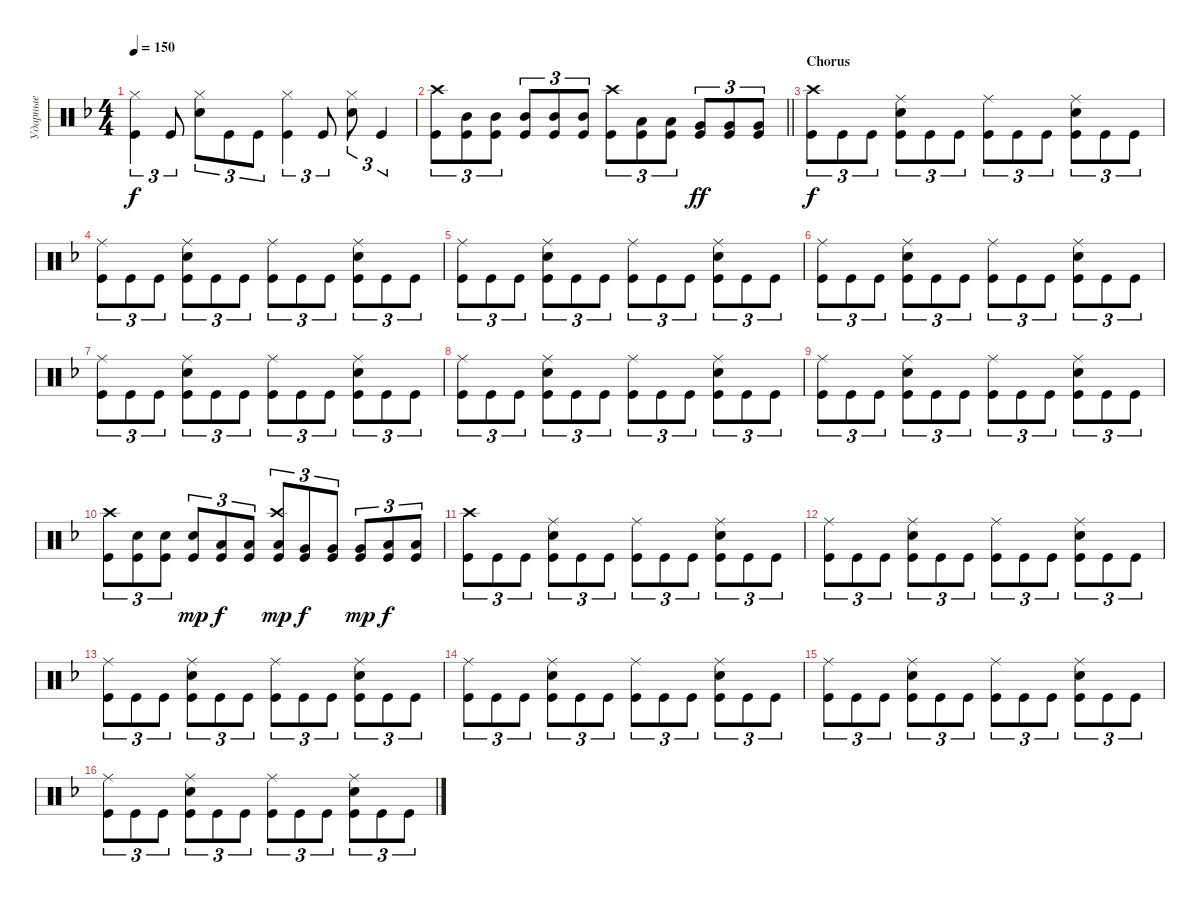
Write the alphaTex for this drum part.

\track ("Ударные" "Ударные") {instrument percussion}
\staff {score}
\articulation defaults
\ts (4 4)
\tempo 150
\clef neutral
\ks dminor
("Kick (hit)" "Hi-Hat (closed)").4{tu (3 2) dy f} "Kick (hit)".8{tu (3 2)} ("Snare (hit) 2" "Hi-Hat (closed)").8{tu (3 2)} "Kick (hit)".8{tu (3 2)} "Kick (hit)".8{tu (3 2)} ("Kick (hit)" "Hi-Hat (closed)").4{tu (3 2)} "Kick (hit)".8{tu (3 2)} ("Snare (hit) 2" "Hi-Hat (closed)").8{tu (3 2)} "Kick (hit)".4{tu (3 2)} |
\barLineRight lightlight
("Kick (hit)" "Crash high (hit)").8{tu (3 2)} ("Mid Tom (hit)" "Kick (hit)").8{tu (3 2)} ("Mid Tom (hit)" "Kick (hit)").8{tu (3 2)} ("Mid Tom (hit)" "Kick (hit)").8{tu (3 2)} ("Mid Tom (hit)" "Kick (hit)").8{tu (3 2)} ("Mid Tom (hit)" "Kick (hit)").8{tu (3 2)} ("Kick (hit)" "Crash high (hit)").8{tu (3 2)} ("Low Tom (hit)" "Kick (hit)").8{tu (3 2)} ("Low Tom (hit)" "Kick (hit)").8{tu (3 2)} ("Very Low Tom (hit)" "Kick (hit)").8{tu (3 2) dy ff} ("Very Low Tom (hit)" "Kick (hit)").8{tu (3 2)} ("Very Low Tom (hit)" "Kick (hit)").8{tu (3 2)} |
\section ("" "Chorus")
("Kick (hit)" "Crash high (hit)").8{tu (3 2) dy f} "Kick (hit)".8{tu (3 2)} "Kick (hit)".8{tu (3 2)} ("Snare (hit) 2" "Kick (hit)" "Ride (middle)").8{tu (3 2)} "Kick (hit)".8{tu (3 2)} "Kick (hit)".8{tu (3 2)} ("Kick (hit)" "Ride (middle)").8{tu (3 2)} "Kick (hit)".8{tu (3 2)} "Kick (hit)".8{tu (3 2)} ("Kick (hit)" "Snare (hit) 2" "Ride (middle)").8{tu (3 2)} "Kick (hit)".8{tu (3 2)} "Kick (hit)".8{tu (3 2)} |
("Kick (hit)" "Ride (middle)").8{tu (3 2)} "Kick (hit)".8{tu (3 2)} "Kick (hit)".8{tu (3 2)} ("Snare (hit) 2" "Kick (hit)" "Ride (middle)").8{tu (3 2)} "Kick (hit)".8{tu (3 2)} "Kick (hit)".8{tu (3 2)} ("Kick (hit)" "Ride (middle)").8{tu (3 2)} "Kick (hit)".8{tu (3 2)} "Kick (hit)".8{tu (3 2)} ("Kick (hit)" "Snare (hit) 2" "Ride (middle)").8{tu (3 2)} "Kick (hit)".8{tu (3 2)} "Kick (hit)".8{tu (3 2)} |
("Kick (hit)" "Ride (middle)").8{tu (3 2)} "Kick (hit)".8{tu (3 2)} "Kick (hit)".8{tu (3 2)} ("Snare (hit) 2" "Kick (hit)" "Ride (middle)").8{tu (3 2)} "Kick (hit)".8{tu (3 2)} "Kick (hit)".8{tu (3 2)} ("Kick (hit)" "Ride (middle)").8{tu (3 2)} "Kick (hit)".8{tu (3 2)} "Kick (hit)".8{tu (3 2)} ("Kick (hit)" "Snare (hit) 2" "Ride (middle)").8{tu (3 2)} "Kick (hit)".8{tu (3 2)} "Kick (hit)".8{tu (3 2)} |
("Kick (hit)" "Ride (middle)").8{tu (3 2)} "Kick (hit)".8{tu (3 2)} "Kick (hit)".8{tu (3 2)} ("Snare (hit) 2" "Kick (hit)" "Ride (middle)").8{tu (3 2)} "Kick (hit)".8{tu (3 2)} "Kick (hit)".8{tu (3 2)} ("Kick (hit)" "Ride (middle)").8{tu (3 2)} "Kick (hit)".8{tu (3 2)} "Kick (hit)".8{tu (3 2)} ("Kick (hit)" "Snare (hit) 2" "Ride (middle)").8{tu (3 2)} "Kick (hit)".8{tu (3 2)} "Kick (hit)".8{tu (3 2)} |
("Kick (hit)" "Ride (middle)").8{tu (3 2)} "Kick (hit)".8{tu (3 2)} "Kick (hit)".8{tu (3 2)} ("Snare (hit) 2" "Kick (hit)" "Ride (middle)").8{tu (3 2)} "Kick (hit)".8{tu (3 2)} "Kick (hit)".8{tu (3 2)} ("Kick (hit)" "Ride (middle)").8{tu (3 2)} "Kick (hit)".8{tu (3 2)} "Kick (hit)".8{tu (3 2)} ("Kick (hit)" "Snare (hit) 2" "Ride (middle)").8{tu (3 2)} "Kick (hit)".8{tu (3 2)} "Kick (hit)".8{tu (3 2)} |
("Kick (hit)" "Ride (middle)").8{tu (3 2)} "Kick (hit)".8{tu (3 2)} "Kick (hit)".8{tu (3 2)} ("Snare (hit) 2" "Kick (hit)" "Ride (middle)").8{tu (3 2)} "Kick (hit)".8{tu (3 2)} "Kick (hit)".8{tu (3 2)} ("Kick (hit)" "Ride (middle)").8{tu (3 2)} "Kick (hit)".8{tu (3 2)} "Kick (hit)".8{tu (3 2)} ("Kick (hit)" "Snare (hit) 2" "Ride (middle)").8{tu (3 2)} "Kick (hit)".8{tu (3 2)} "Kick (hit)".8{tu (3 2)} |
("Kick (hit)" "Ride (middle)").8{tu (3 2)} "Kick (hit)".8{tu (3 2)} "Kick (hit)".8{tu (3 2)} ("Snare (hit) 2" "Kick (hit)" "Ride (middle)").8{tu (3 2)} "Kick (hit)".8{tu (3 2)} "Kick (hit)".8{tu (3 2)} ("Kick (hit)" "Ride (middle)").8{tu (3 2)} "Kick (hit)".8{tu (3 2)} "Kick (hit)".8{tu (3 2)} ("Kick (hit)" "Snare (hit) 2" "Ride (middle)").8{tu (3 2)} "Kick (hit)".8{tu (3 2)} "Kick (hit)".8{tu (3 2)} |
("Kick (hit)" "Crash high (hit)").8{tu (3 2)} ("Snare (hit) 2" "Kick (hit)").8{tu (3 2)} ("Snare (hit) 2" "Kick (hit)").8{tu (3 2)} ("Snare (hit) 2" "Kick (hit)").8{tu (3 2) dy mp} ("Kick (hit)" "Low Tom (hit)").8{tu (3 2) dy f} ("Kick (hit)" "Low Tom (hit)").8{tu (3 2)} ("Kick (hit)" "Crash high (hit)" "Low Tom (hit)").8{tu (3 2) dy mp} ("Very Low Tom (hit)" "Kick (hit)").8{tu (3 2) dy f} ("Very Low Tom (hit)" "Kick (hit)").8{tu (3 2)} ("Very Low Tom (hit)" "Kick (hit)").8{tu (3 2) dy mp} ("Low Floor Tom (hit)" "Kick (hit)").8{tu (3 2) dy f} ("Low Floor Tom (hit)" "Kick (hit)").8{tu (3 2)} |
("Kick (hit)" "Crash high (hit)").8{tu (3 2)} "Kick (hit)".8{tu (3 2)} "Kick (hit)".8{tu (3 2)} ("Snare (hit) 2" "Kick (hit)" "Ride (middle)").8{tu (3 2)} "Kick (hit)".8{tu (3 2)} "Kick (hit)".8{tu (3 2)} ("Kick (hit)" "Ride (middle)").8{tu (3 2)} "Kick (hit)".8{tu (3 2)} "Kick (hit)".8{tu (3 2)} ("Kick (hit)" "Snare (hit) 2" "Ride (middle)").8{tu (3 2)} "Kick (hit)".8{tu (3 2)} "Kick (hit)".8{tu (3 2)} |
("Kick (hit)" "Ride (middle)").8{tu (3 2)} "Kick (hit)".8{tu (3 2)} "Kick (hit)".8{tu (3 2)} ("Snare (hit) 2" "Kick (hit)" "Ride (middle)").8{tu (3 2)} "Kick (hit)".8{tu (3 2)} "Kick (hit)".8{tu (3 2)} ("Kick (hit)" "Ride (middle)").8{tu (3 2)} "Kick (hit)".8{tu (3 2)} "Kick (hit)".8{tu (3 2)} ("Kick (hit)" "Snare (hit) 2" "Ride (middle)").8{tu (3 2)} "Kick (hit)".8{tu (3 2)} "Kick (hit)".8{tu (3 2)} |
("Kick (hit)" "Ride (middle)").8{tu (3 2)} "Kick (hit)".8{tu (3 2)} "Kick (hit)".8{tu (3 2)} ("Snare (hit) 2" "Kick (hit)" "Ride (middle)").8{tu (3 2)} "Kick (hit)".8{tu (3 2)} "Kick (hit)".8{tu (3 2)} ("Kick (hit)" "Ride (middle)").8{tu (3 2)} "Kick (hit)".8{tu (3 2)} "Kick (hit)".8{tu (3 2)} ("Kick (hit)" "Snare (hit) 2" "Ride (middle)").8{tu (3 2)} "Kick (hit)".8{tu (3 2)} "Kick (hit)".8{tu (3 2)} |
("Kick (hit)" "Ride (middle)").8{tu (3 2)} "Kick (hit)".8{tu (3 2)} "Kick (hit)".8{tu (3 2)} ("Snare (hit) 2" "Kick (hit)" "Ride (middle)").8{tu (3 2)} "Kick (hit)".8{tu (3 2)} "Kick (hit)".8{tu (3 2)} ("Kick (hit)" "Ride (middle)").8{tu (3 2)} "Kick (hit)".8{tu (3 2)} "Kick (hit)".8{tu (3 2)} ("Kick (hit)" "Snare (hit) 2" "Ride (middle)").8{tu (3 2)} "Kick (hit)".8{tu (3 2)} "Kick (hit)".8{tu (3 2)} |
("Kick (hit)" "Ride (middle)").8{tu (3 2)} "Kick (hit)".8{tu (3 2)} "Kick (hit)".8{tu (3 2)} ("Snare (hit) 2" "Kick (hit)" "Ride (middle)").8{tu (3 2)} "Kick (hit)".8{tu (3 2)} "Kick (hit)".8{tu (3 2)} ("Kick (hit)" "Ride (middle)").8{tu (3 2)} "Kick (hit)".8{tu (3 2)} "Kick (hit)".8{tu (3 2)} ("Kick (hit)" "Snare (hit) 2" "Ride (middle)").8{tu (3 2)} "Kick (hit)".8{tu (3 2)} "Kick (hit)".8{tu (3 2)} |
("Kick (hit)" "Ride (middle)").8{tu (3 2)} "Kick (hit)".8{tu (3 2)} "Kick (hit)".8{tu (3 2)} ("Snare (hit) 2" "Kick (hit)" "Ride (middle)").8{tu (3 2)} "Kick (hit)".8{tu (3 2)} "Kick (hit)".8{tu (3 2)} ("Kick (hit)" "Ride (middle)").8{tu (3 2)} "Kick (hit)".8{tu (3 2)} "Kick (hit)".8{tu (3 2)} ("Kick (hit)" "Snare (hit) 2" "Ride (middle)").8{tu (3 2)} "Kick (hit)".8{tu (3 2)} "Kick (hit)".8{tu (3 2)}
